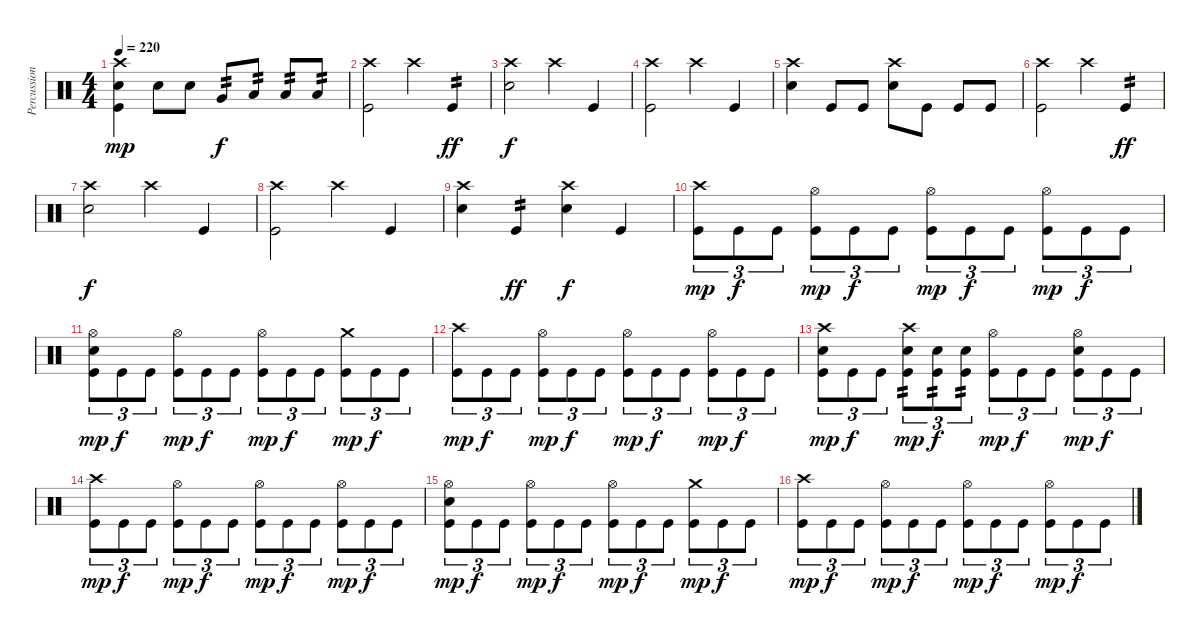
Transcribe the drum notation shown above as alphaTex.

\track ("Percussion" "Percussion") {instrument percussion}
\staff {score}
\articulation defaults
\ts (4 4)
\tempo 220
\clef neutral
\ks c
("Crash high (hit)" "Electric Snare (hit)" "Kick (hit)").4{dy mp} "Electric Snare (hit)".8 "Electric Snare (hit)".8 "Very Low Tom (hit)".8{tp 2 dy f} "Low Floor Tom (hit)".8{tp 2} "Low Floor Tom (hit)".8{tp 2} "Low Floor Tom (hit)".8{tp 2} |
("Crash high (hit)" "Kick (hit)").2 "Crash high (hit)".4 "Kick (hit)".4{tp 2 dy ff} |
("Crash high (hit)" "Electric Snare (hit)").2{dy f} "Crash high (hit)".4 "Kick (hit)".4 |
("Crash high (hit)" "Kick (hit)").2 "Crash high (hit)".4 "Kick (hit)".4 |
("Crash high (hit)" "Electric Snare (hit)").4 "Kick (hit)".8 "Kick (hit)".8 ("Crash high (hit)" "Electric Snare (hit)").8 "Kick (hit)".8 "Kick (hit)".8 "Kick (hit)".8 |
("Crash high (hit)" "Kick (hit)").2 "Crash high (hit)".4 "Kick (hit)".4{tp 2 dy ff} |
("Crash high (hit)" "Electric Snare (hit)").2{dy f} "Crash high (hit)".4 "Kick (hit)".4 |
("Crash high (hit)" "Kick (hit)").2 "Crash high (hit)".4 "Kick (hit)".4 |
("Crash high (hit)" "Electric Snare (hit)").4 "Kick (hit)".4{tp 2 dy ff} ("Crash high (hit)" "Electric Snare (hit)").4{dy f} "Kick (hit)".4 |
("Crash high (hit)" "Kick (hit)").8{tu (3 2) dy mp} "Kick (hit)".8{tu (3 2) dy f} "Kick (hit)".8{tu (3 2)} ("Hi-Hat (open)" "Kick (hit)").8{tu (3 2) dy mp} "Kick (hit)".8{tu (3 2) dy f} "Kick (hit)".8{tu (3 2)} ("Hi-Hat (open)" "Kick (hit)").8{tu (3 2) dy mp} "Kick (hit)".8{tu (3 2) dy f} "Kick (hit)".8{tu (3 2)} ("Hi-Hat (open)" "Kick (hit)").8{tu (3 2) dy mp} "Kick (hit)".8{tu (3 2) dy f} "Kick (hit)".8{tu (3 2)} |
("Hi-Hat (open)" "Electric Snare (hit)" "Kick (hit)").8{tu (3 2) dy mp} "Kick (hit)".8{tu (3 2) dy f} "Kick (hit)".8{tu (3 2)} ("Hi-Hat (open)" "Kick (hit)").8{tu (3 2) dy mp} "Kick (hit)".8{tu (3 2) dy f} "Kick (hit)".8{tu (3 2)} ("Hi-Hat (open)" "Kick (hit)").8{tu (3 2) dy mp} "Kick (hit)".8{tu (3 2) dy f} "Kick (hit)".8{tu (3 2)} ("Crash medium (hit)" "Kick (hit)").8{tu (3 2) dy mp} "Kick (hit)".8{tu (3 2) dy f} "Kick (hit)".8{tu (3 2)} |
("Crash high (hit)" "Kick (hit)").8{tu (3 2) dy mp} "Kick (hit)".8{tu (3 2) dy f} "Kick (hit)".8{tu (3 2)} ("Hi-Hat (open)" "Kick (hit)").8{tu (3 2) dy mp} "Kick (hit)".8{tu (3 2) dy f} "Kick (hit)".8{tu (3 2)} ("Hi-Hat (open)" "Kick (hit)").8{tu (3 2) dy mp} "Kick (hit)".8{tu (3 2) dy f} "Kick (hit)".8{tu (3 2)} ("Hi-Hat (open)" "Kick (hit)").8{tu (3 2) dy mp} "Kick (hit)".8{tu (3 2) dy f} "Kick (hit)".8{tu (3 2)} |
("Crash high (hit)" "Electric Snare (hit)" "Kick (hit)").8{tu (3 2) dy mp} "Kick (hit)".8{tu (3 2) dy f} "Kick (hit)".8{tu (3 2)} ("Crash high (hit)" "Electric Snare (hit)" "Kick (hit)").8{tu (3 2) tp 2 dy mp} ("Electric Snare (hit)" "Kick (hit)").8{tu (3 2) tp 2 dy f} ("Electric Snare (hit)" "Kick (hit)").8{tu (3 2) tp 2} ("Hi-Hat (open)" "Kick (hit)").8{tu (3 2) dy mp} "Kick (hit)".8{tu (3 2) dy f} "Kick (hit)".8{tu (3 2)} ("Hi-Hat (open)" "Electric Snare (hit)" "Kick (hit)").8{tu (3 2) dy mp} "Kick (hit)".8{tu (3 2) dy f} "Kick (hit)".8{tu (3 2)} |
("Crash high (hit)" "Kick (hit)").8{tu (3 2) dy mp} "Kick (hit)".8{tu (3 2) dy f} "Kick (hit)".8{tu (3 2)} ("Hi-Hat (open)" "Kick (hit)").8{tu (3 2) dy mp} "Kick (hit)".8{tu (3 2) dy f} "Kick (hit)".8{tu (3 2)} ("Hi-Hat (open)" "Kick (hit)").8{tu (3 2) dy mp} "Kick (hit)".8{tu (3 2) dy f} "Kick (hit)".8{tu (3 2)} ("Hi-Hat (open)" "Kick (hit)").8{tu (3 2) dy mp} "Kick (hit)".8{tu (3 2) dy f} "Kick (hit)".8{tu (3 2)} |
("Hi-Hat (open)" "Electric Snare (hit)" "Kick (hit)").8{tu (3 2) dy mp} "Kick (hit)".8{tu (3 2) dy f} "Kick (hit)".8{tu (3 2)} ("Hi-Hat (open)" "Kick (hit)").8{tu (3 2) dy mp} "Kick (hit)".8{tu (3 2) dy f} "Kick (hit)".8{tu (3 2)} ("Hi-Hat (open)" "Kick (hit)").8{tu (3 2) dy mp} "Kick (hit)".8{tu (3 2) dy f} "Kick (hit)".8{tu (3 2)} ("Crash medium (hit)" "Kick (hit)").8{tu (3 2) dy mp} "Kick (hit)".8{tu (3 2) dy f} "Kick (hit)".8{tu (3 2)} |
("Crash high (hit)" "Kick (hit)").8{tu (3 2) dy mp} "Kick (hit)".8{tu (3 2) dy f} "Kick (hit)".8{tu (3 2)} ("Hi-Hat (open)" "Kick (hit)").8{tu (3 2) dy mp} "Kick (hit)".8{tu (3 2) dy f} "Kick (hit)".8{tu (3 2)} ("Hi-Hat (open)" "Kick (hit)").8{tu (3 2) dy mp} "Kick (hit)".8{tu (3 2) dy f} "Kick (hit)".8{tu (3 2)} ("Hi-Hat (open)" "Kick (hit)").8{tu (3 2) dy mp} "Kick (hit)".8{tu (3 2) dy f} "Kick (hit)".8{tu (3 2)}
